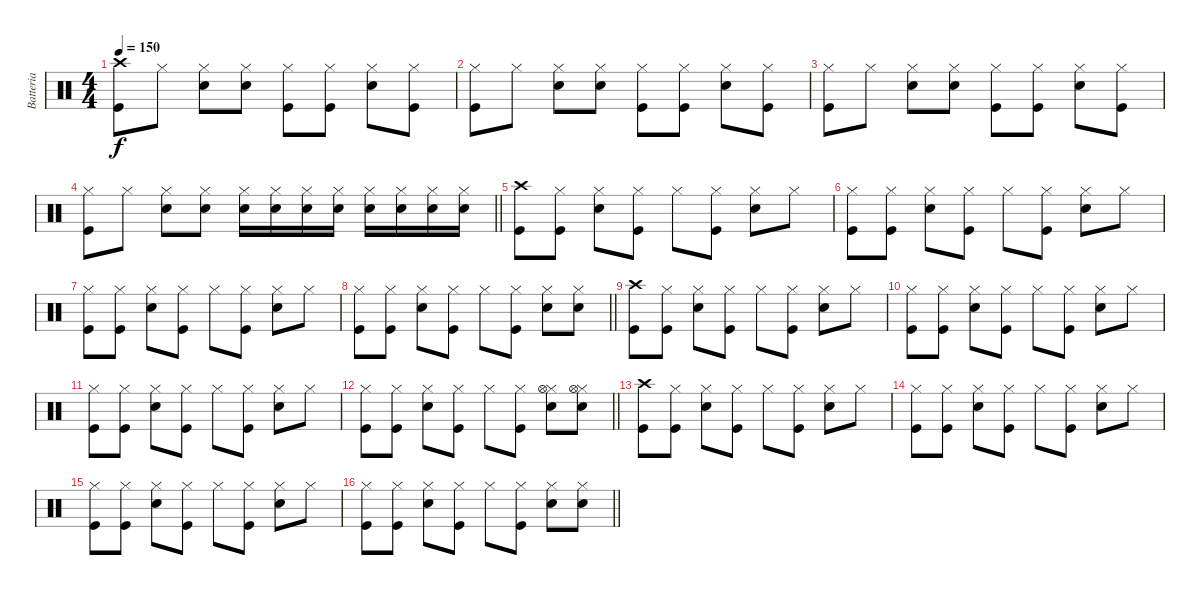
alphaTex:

\track ("Batteria" "Batteria") {instrument percussion}
\staff {score}
\articulation defaults
\ts (4 4)
\tempo 150
\clef neutral
\ks c
("Kick (hit)" "Crash high (hit)").8{dy f} "Hi-Hat (closed)".8 ("Snare (hit) 2" "Hi-Hat (closed)").8 ("Snare (hit) 2" "Hi-Hat (closed)").8 ("Hi-Hat (closed)" "Kick (hit)").8 ("Kick (hit)" "Hi-Hat (closed)").8 ("Snare (hit) 2" "Hi-Hat (closed)").8 ("Kick (hit)" "Hi-Hat (closed)").8 |
("Kick (hit)" "Hi-Hat (closed)").8 "Hi-Hat (closed)".8 ("Snare (hit) 2" "Hi-Hat (closed)").8 ("Snare (hit) 2" "Hi-Hat (closed)").8 ("Hi-Hat (closed)" "Kick (hit)").8 ("Kick (hit)" "Hi-Hat (closed)").8 ("Snare (hit) 2" "Hi-Hat (closed)").8 ("Kick (hit)" "Hi-Hat (closed)").8 |
("Kick (hit)" "Hi-Hat (closed)").8 "Hi-Hat (closed)".8 ("Snare (hit) 2" "Hi-Hat (closed)").8 ("Snare (hit) 2" "Hi-Hat (closed)").8 ("Hi-Hat (closed)" "Kick (hit)").8 ("Kick (hit)" "Hi-Hat (closed)").8 ("Snare (hit) 2" "Hi-Hat (closed)").8 ("Kick (hit)" "Hi-Hat (closed)").8 |
\barLineRight lightlight
("Kick (hit)" "Hi-Hat (closed)").8 "Hi-Hat (closed)".8 ("Snare (hit) 2" "Hi-Hat (closed)").8 ("Snare (hit) 2" "Hi-Hat (closed)").8 ("Snare (hit) 2" "Hi-Hat (closed)").16 ("Snare (hit) 2" "Hi-Hat (closed)").16 ("Snare (hit) 2" "Hi-Hat (closed)").16 ("Snare (hit) 2" "Hi-Hat (closed)").16 ("Snare (hit) 2" "Hi-Hat (closed)").16 ("Snare (hit) 2" "Hi-Hat (closed)").16 ("Snare (hit) 2" "Hi-Hat (closed)").16 ("Snare (hit) 2" "Hi-Hat (closed)").16 |
("Kick (hit)" "Crash high (hit)").8 ("Kick (hit)" "Hi-Hat (closed)").8 ("Snare (hit) 2" "Hi-Hat (closed)").8 ("Kick (hit)" "Hi-Hat (closed)").8 "Hi-Hat (closed)".8 ("Kick (hit)" "Hi-Hat (closed)").8 ("Snare (hit) 2" "Hi-Hat (closed)").8 "Hi-Hat (closed)".8 |
("Kick (hit)" "Hi-Hat (closed)").8 ("Kick (hit)" "Hi-Hat (closed)").8 ("Snare (hit) 2" "Hi-Hat (closed)").8 ("Kick (hit)" "Hi-Hat (closed)").8 "Hi-Hat (closed)".8 ("Kick (hit)" "Hi-Hat (closed)").8 ("Snare (hit) 2" "Hi-Hat (closed)").8 "Hi-Hat (closed)".8 |
("Kick (hit)" "Hi-Hat (closed)").8 ("Kick (hit)" "Hi-Hat (closed)").8 ("Snare (hit) 2" "Hi-Hat (closed)").8 ("Kick (hit)" "Hi-Hat (closed)").8 "Hi-Hat (closed)".8 ("Kick (hit)" "Hi-Hat (closed)").8 ("Snare (hit) 2" "Hi-Hat (closed)").8 "Hi-Hat (closed)".8 |
\barLineRight lightlight
("Kick (hit)" "Hi-Hat (closed)").8 ("Kick (hit)" "Hi-Hat (closed)").8 ("Snare (hit) 2" "Hi-Hat (closed)").8 ("Kick (hit)" "Hi-Hat (closed)").8 "Hi-Hat (closed)".8 ("Kick (hit)" "Hi-Hat (closed)").8 ("Snare (hit) 2" "Hi-Hat (closed)").8 ("Hi-Hat (closed)" "Snare (hit) 2").8 |
("Kick (hit)" "Crash high (hit)").8 ("Kick (hit)" "Hi-Hat (closed)").8 ("Snare (hit) 2" "Hi-Hat (closed)").8 ("Kick (hit)" "Hi-Hat (closed)").8 "Hi-Hat (closed)".8 ("Kick (hit)" "Hi-Hat (closed)").8 ("Snare (hit) 2" "Hi-Hat (closed)").8 "Hi-Hat (closed)".8 |
("Kick (hit)" "Hi-Hat (closed)").8 ("Kick (hit)" "Hi-Hat (closed)").8 ("Snare (hit) 2" "Hi-Hat (closed)").8 ("Kick (hit)" "Hi-Hat (closed)").8 "Hi-Hat (closed)".8 ("Kick (hit)" "Hi-Hat (closed)").8 ("Snare (hit) 2" "Hi-Hat (closed)").8 "Hi-Hat (closed)".8 |
("Kick (hit)" "Hi-Hat (closed)").8 ("Kick (hit)" "Hi-Hat (closed)").8 ("Snare (hit) 2" "Hi-Hat (closed)").8 ("Kick (hit)" "Hi-Hat (closed)").8 "Hi-Hat (closed)".8 ("Kick (hit)" "Hi-Hat (closed)").8 ("Snare (hit) 2" "Hi-Hat (closed)").8 "Hi-Hat (closed)".8 |
\barLineRight lightlight
("Kick (hit)" "Hi-Hat (closed)").8 ("Kick (hit)" "Hi-Hat (closed)").8 ("Snare (hit) 2" "Hi-Hat (closed)").8 ("Kick (hit)" "Hi-Hat (closed)").8 "Hi-Hat (closed)".8 ("Kick (hit)" "Hi-Hat (closed)").8 ("Snare (hit) 2" "Hi-Hat (closed)" "Hi-Hat (open)").8 ("Hi-Hat (closed)" "Snare (hit) 2" "Hi-Hat (open)").8 |
("Kick (hit)" "Crash high (hit)").8 ("Kick (hit)" "Hi-Hat (closed)").8 ("Snare (hit) 2" "Hi-Hat (closed)").8 ("Kick (hit)" "Hi-Hat (closed)").8 "Hi-Hat (closed)".8 ("Kick (hit)" "Hi-Hat (closed)").8 ("Snare (hit) 2" "Hi-Hat (closed)").8 "Hi-Hat (closed)".8 |
("Kick (hit)" "Hi-Hat (closed)").8 ("Kick (hit)" "Hi-Hat (closed)").8 ("Snare (hit) 2" "Hi-Hat (closed)").8 ("Kick (hit)" "Hi-Hat (closed)").8 "Hi-Hat (closed)".8 ("Kick (hit)" "Hi-Hat (closed)").8 ("Snare (hit) 2" "Hi-Hat (closed)").8 "Hi-Hat (closed)".8 |
("Kick (hit)" "Hi-Hat (closed)").8 ("Kick (hit)" "Hi-Hat (closed)").8 ("Snare (hit) 2" "Hi-Hat (closed)").8 ("Kick (hit)" "Hi-Hat (closed)").8 "Hi-Hat (closed)".8 ("Kick (hit)" "Hi-Hat (closed)").8 ("Snare (hit) 2" "Hi-Hat (closed)").8 "Hi-Hat (closed)".8 |
\barLineRight lightlight
("Kick (hit)" "Hi-Hat (closed)").8 ("Kick (hit)" "Hi-Hat (closed)").8 ("Snare (hit) 2" "Hi-Hat (closed)").8 ("Kick (hit)" "Hi-Hat (closed)").8 "Hi-Hat (closed)".8 ("Kick (hit)" "Hi-Hat (closed)").8 ("Snare (hit) 2" "Hi-Hat (closed)").8 ("Hi-Hat (closed)" "Snare (hit) 2").8
